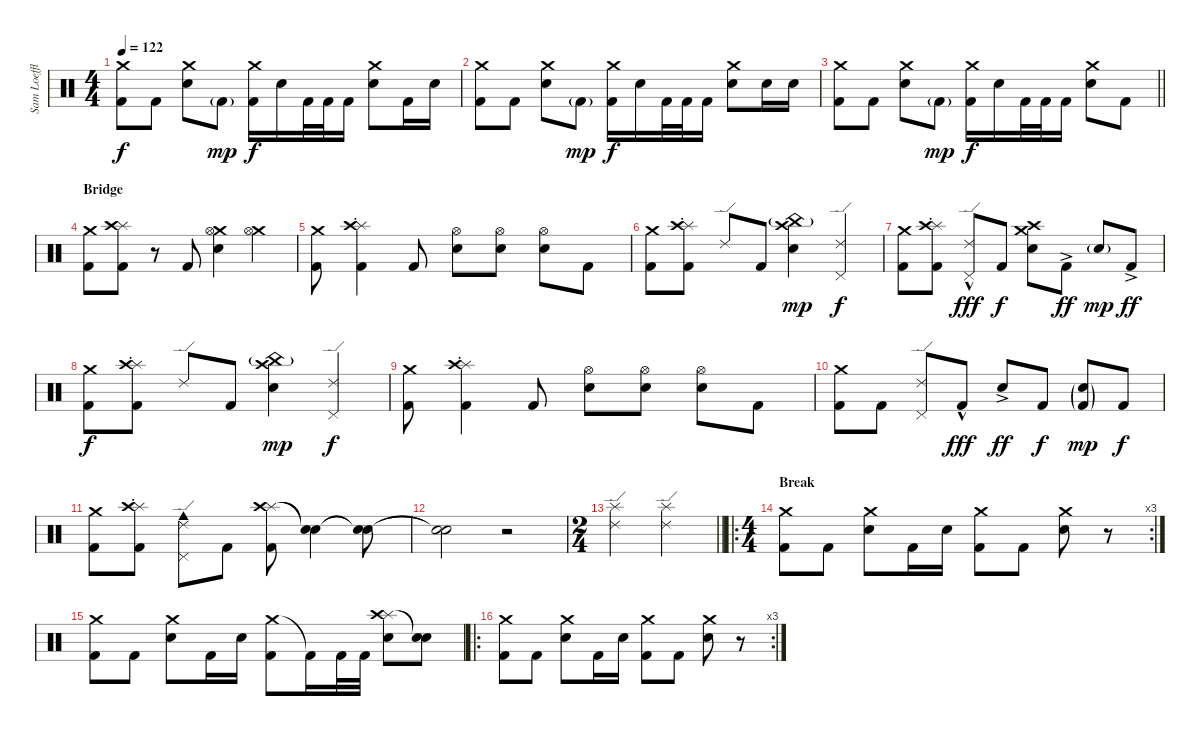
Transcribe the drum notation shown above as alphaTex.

\track ("Sam Loeffler- Drums" "Sam Loeffl") {instrument percussion}
\staff {score}
\articulation defaults
\ts (4 4)
\tempo 122
\clef neutral
\ks c
("Crash medium (hit)" "Kick (hit) 2").8{dy f} "Kick (hit) 2".8 ("Crash medium (hit)" "Electric Snare (hit)").8 "Kick (hit) 2"{g}.8{dy mp} ("Crash medium (hit)" "Kick (hit) 2").16{dy f} "Electric Snare (hit)".16 "Kick (hit) 2".32 "Kick (hit) 2".32 "Kick (hit) 2".16 ("Crash medium (hit)" "Electric Snare (hit)").8 "Kick (hit) 2".16 "Electric Snare (hit)".16 |
("Crash medium (hit)" "Kick (hit) 2").8 "Kick (hit) 2".8 ("Crash medium (hit)" "Electric Snare (hit)").8 "Kick (hit) 2"{g}.8{dy mp} ("Crash medium (hit)" "Kick (hit) 2").16{dy f} "Electric Snare (hit)".16 "Kick (hit) 2".32 "Kick (hit) 2".32 "Kick (hit) 2".16 ("Crash medium (hit)" "Electric Snare (hit)").8 "Electric Snare (hit)".16 "Electric Snare (hit)".16 |
\barLineRight lightlight
("Crash medium (hit)" "Kick (hit) 2").8 "Kick (hit) 2".8 ("Crash medium (hit)" "Electric Snare (hit)").8 "Kick (hit) 2"{g}.8{dy mp} ("Crash medium (hit)" "Kick (hit) 2").16{dy f} "Electric Snare (hit)".16 "Kick (hit) 2".32 "Kick (hit) 2".32 "Kick (hit) 2".16 ("Crash medium (hit)" "Electric Snare (hit)").8 "Kick (hit) 2".8 |
\section ("" "Bridge")
("Crash medium (hit)" "Kick (hit) 2").8 ("Splash (hit)" "Crash high (hit)" "Kick (hit) 2").8 r.8 "Kick (hit) 2".8 ("Crash medium (hit)" "Hi-Hat (open)" "Electric Snare (hit)").4 ("Crash medium (hit)" "Hi-Hat (open)").4 |
("Crash medium (hit)" "Kick (hit) 2").8 ("Splash (hit)"{st} "Crash high (hit)"{st} "Kick (hit) 2").4 "Kick (hit) 2".8 ("Hi-Hat (open)" "Electric Snare (hit)").8 ("Hi-Hat (open)" "Electric Snare (hit)").8 ("Hi-Hat (open)" "Electric Snare (hit)").8 "Kick (hit) 2".8 |
("Crash medium (hit)" "Kick (hit) 2").8 ("Splash (hit)"{st} "Crash high (hit)"{st} "Kick (hit) 2").8 "Ride (edge) 2".8 "Kick (hit) 2".8 ("China (hit)"{g} "Crash high (hit)" "Electric Snare (hit)").4{dy mp} ("Ride (edge) 2" "Pedal Hi-Hat (hit)").4{dy f} |
("Crash medium (hit)" "Kick (hit) 2").8 ("Splash (hit)"{st} "Crash high (hit)"{st} "Kick (hit) 2").8 ("Ride (edge) 2"{hac} "Pedal Hi-Hat (hit)"{hac}).8{dy fff} "Kick (hit) 2".8{dy f} ("Crash medium (hit)" "Crash high (hit)" "Electric Snare (hit)").8 "Kick (hit) 2"{ac}.8{dy ff} "Electric Snare (hit)"{g}.8{dy mp} "Kick (hit) 2"{ac}.8{dy ff} |
("Crash medium (hit)" "Kick (hit) 2").8{dy f} ("Splash (hit)"{st} "Crash high (hit)"{st} "Kick (hit) 2").8 "Ride (edge) 2".8 "Kick (hit) 2".8 ("China (hit)"{g} "Crash high (hit)" "Electric Snare (hit)").4{dy mp} ("Ride (edge) 2" "Pedal Hi-Hat (hit)").4{dy f} |
("Crash medium (hit)" "Kick (hit) 2").8 ("Splash (hit)"{st} "Crash high (hit)"{st} "Kick (hit) 2").4 "Kick (hit) 2".8 ("Hi-Hat (open)" "Electric Snare (hit)").8 ("Hi-Hat (open)" "Electric Snare (hit)").8 ("Hi-Hat (open)" "Electric Snare (hit)").8 "Kick (hit) 2".8 |
("Crash medium (hit)" "Kick (hit) 2").8 "Kick (hit) 2".8 ("Ride (edge) 2" "Pedal Hi-Hat (hit)").8 "Kick (hit) 2"{hac}.8{dy fff} "Electric Snare (hit)"{ac}.8{dy ff} "Kick (hit) 2".8{dy f} ("Electric Snare (hit)"{g} "Kick (hit) 2"{g}).8{dy mp} "Kick (hit) 2".8{dy f} |
("Crash medium (hit)" "Kick (hit) 2").8 ("Splash (hit)"{st} "Crash high (hit)"{st} "Kick (hit) 2").8 ("Cowbell medium (hit)" "Ride (edge) 2" "Pedal Hi-Hat (hit)").8 "Kick (hit) 2".8 ("Splash (hit)" "Crash high (hit)" "Kick (hit) 2").8 ("Snare (hit)"{t} "Snare (hit)"{t}).4 ("Snare (hit)"{t} "Snare (hit)"{t}).8 |
("Snare (hit)"{t} "Snare (hit)"{t}).2 r.2 |
\ts (2 4)
\barLineRight lightlight
("Ride (edge) 2" "Splash (hit)").4 ("Ride (edge) 2" "Splash (hit)").4 |
\ro
\rc 3
\ts (4 4)
\section ("" "Break")
("Crash medium (hit)" "Kick (hit) 2").8 "Kick (hit) 2".8 ("Crash medium (hit)" "Electric Snare (hit)").8 "Kick (hit) 2".16 "Electric Snare (hit)".16 ("Crash medium (hit)" "Kick (hit) 2").8 "Kick (hit) 2".8 ("Crash medium (hit)" "Electric Snare (hit)").8 r.8 |
("Crash medium (hit)" "Kick (hit) 2").8 "Kick (hit) 2".8 ("Crash medium (hit)" "Electric Snare (hit)").8 "Kick (hit) 2".16 "Electric Snare (hit)".16 ("Crash medium (hit)" "Kick (hit) 2").8 "Kick (hit) 2"{t}.16 "Kick (hit) 2".32 "Kick (hit) 2".32 ("Splash (hit)" "Crash high (hit)" "Electric Snare (hit)").8 ("Snare (hit)"{t} "Snare (hit)"{t}).8 |
\ro
\rc 3
("Crash medium (hit)" "Kick (hit) 2").8 "Kick (hit) 2".8 ("Crash medium (hit)" "Electric Snare (hit)").8 "Kick (hit) 2".16 "Electric Snare (hit)".16 ("Crash medium (hit)" "Kick (hit) 2").8 "Kick (hit) 2".8 ("Crash medium (hit)" "Electric Snare (hit)").8 r.8
